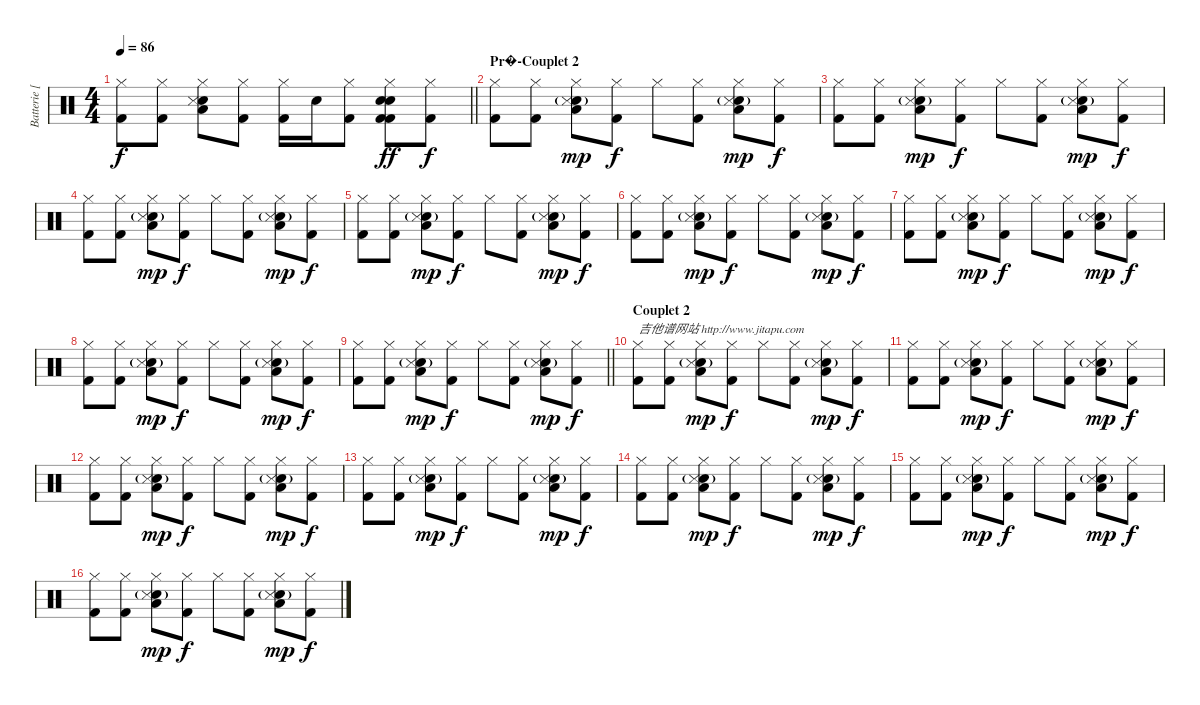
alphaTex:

\track ("Batterie [Dominic Howard]" "Batterie [") {instrument percussion}
\staff {score}
\articulation defaults
\ts (4 4)
\tempo 86
\clef neutral
\barLineRight lightlight
\ks c
("Hi-Hat (closed)" "Kick (hit) 2").8{dy f} ("Hi-Hat (closed)" "Kick (hit) 2").8 ("Hi-Hat (closed)" "Low Tom (hit)" "Electric Snare (hit)" "Snare (side stick) 3").8 ("Hi-Hat (closed)" "Kick (hit) 2").8 ("Hi-Hat (closed)" "Kick (hit) 2").16 "Electric Snare (hit)".16 ("Hi-Hat (closed)" "Kick (hit) 2").8 ("Hi-Hat (closed)" "Electric Snare (hit)" "Kick (hit) 2" "Electric Snare (hit)" "Kick (hit) 2").8{dy ff} ("Hi-Hat (closed)" "Kick (hit) 2").8{dy f} |
\section ("" "Pr�-Couplet 2")
("Hi-Hat (closed)" "Kick (hit) 2").8 ("Hi-Hat (closed)" "Kick (hit) 2").8 ("Hi-Hat (closed)" "Low Tom (hit)" "Electric Snare (hit)"{g} "Snare (side stick) 3").8{dy mp} ("Hi-Hat (closed)" "Kick (hit) 2").8{dy f} "Hi-Hat (closed)".8 ("Hi-Hat (closed)" "Kick (hit) 2").8 ("Hi-Hat (closed)" "Low Tom (hit)" "Electric Snare (hit)"{g} "Snare (side stick) 3").8{dy mp} ("Hi-Hat (closed)" "Kick (hit) 2").8{dy f} |
("Hi-Hat (closed)" "Kick (hit) 2").8 ("Hi-Hat (closed)" "Kick (hit) 2").8 ("Hi-Hat (closed)" "Low Tom (hit)" "Electric Snare (hit)"{g} "Snare (side stick) 3").8{dy mp} ("Hi-Hat (closed)" "Kick (hit) 2").8{dy f} "Hi-Hat (closed)".8 ("Hi-Hat (closed)" "Kick (hit) 2").8 ("Hi-Hat (closed)" "Low Tom (hit)" "Electric Snare (hit)"{g} "Snare (side stick) 3").8{dy mp} ("Hi-Hat (closed)" "Kick (hit) 2").8{dy f} |
("Hi-Hat (closed)" "Kick (hit) 2").8 ("Hi-Hat (closed)" "Kick (hit) 2").8 ("Hi-Hat (closed)" "Low Tom (hit)" "Electric Snare (hit)"{g} "Snare (side stick) 3").8{dy mp} ("Hi-Hat (closed)" "Kick (hit) 2").8{dy f} "Hi-Hat (closed)".8 ("Hi-Hat (closed)" "Kick (hit) 2").8 ("Hi-Hat (closed)" "Low Tom (hit)" "Electric Snare (hit)"{g} "Snare (side stick) 3").8{dy mp} ("Hi-Hat (closed)" "Kick (hit) 2").8{dy f} |
("Hi-Hat (closed)" "Kick (hit) 2").8 ("Hi-Hat (closed)" "Kick (hit) 2").8 ("Hi-Hat (closed)" "Low Tom (hit)" "Electric Snare (hit)"{g} "Snare (side stick) 3").8{dy mp} ("Hi-Hat (closed)" "Kick (hit) 2").8{dy f} "Hi-Hat (closed)".8 ("Hi-Hat (closed)" "Kick (hit) 2").8 ("Hi-Hat (closed)" "Low Tom (hit)" "Electric Snare (hit)"{g} "Snare (side stick) 3").8{dy mp} ("Hi-Hat (closed)" "Kick (hit) 2").8{dy f} |
("Hi-Hat (closed)" "Kick (hit) 2").8 ("Hi-Hat (closed)" "Kick (hit) 2").8 ("Hi-Hat (closed)" "Low Tom (hit)" "Electric Snare (hit)"{g} "Snare (side stick) 3").8{dy mp} ("Hi-Hat (closed)" "Kick (hit) 2").8{dy f} "Hi-Hat (closed)".8 ("Hi-Hat (closed)" "Kick (hit) 2").8 ("Hi-Hat (closed)" "Low Tom (hit)" "Electric Snare (hit)"{g} "Snare (side stick) 3").8{dy mp} ("Hi-Hat (closed)" "Kick (hit) 2").8{dy f} |
("Hi-Hat (closed)" "Kick (hit) 2").8 ("Hi-Hat (closed)" "Kick (hit) 2").8 ("Hi-Hat (closed)" "Low Tom (hit)" "Electric Snare (hit)"{g} "Snare (side stick) 3").8{dy mp} ("Hi-Hat (closed)" "Kick (hit) 2").8{dy f} "Hi-Hat (closed)".8 ("Hi-Hat (closed)" "Kick (hit) 2").8 ("Hi-Hat (closed)" "Low Tom (hit)" "Electric Snare (hit)"{g} "Snare (side stick) 3").8{dy mp} ("Hi-Hat (closed)" "Kick (hit) 2").8{dy f} |
("Hi-Hat (closed)" "Kick (hit) 2").8 ("Hi-Hat (closed)" "Kick (hit) 2").8 ("Hi-Hat (closed)" "Low Tom (hit)" "Electric Snare (hit)"{g} "Snare (side stick) 3").8{dy mp} ("Hi-Hat (closed)" "Kick (hit) 2").8{dy f} "Hi-Hat (closed)".8 ("Hi-Hat (closed)" "Kick (hit) 2").8 ("Hi-Hat (closed)" "Low Tom (hit)" "Electric Snare (hit)"{g} "Snare (side stick) 3").8{dy mp} ("Hi-Hat (closed)" "Kick (hit) 2").8{dy f} |
\barLineRight lightlight
("Hi-Hat (closed)" "Kick (hit) 2").8 ("Hi-Hat (closed)" "Kick (hit) 2").8 ("Hi-Hat (closed)" "Low Tom (hit)" "Electric Snare (hit)"{g} "Snare (side stick) 3").8{dy mp} ("Hi-Hat (closed)" "Kick (hit) 2").8{dy f} "Hi-Hat (closed)".8 ("Hi-Hat (closed)" "Kick (hit) 2").8 ("Hi-Hat (closed)" "Low Tom (hit)" "Electric Snare (hit)"{g} "Snare (side stick) 3").8{dy mp} ("Hi-Hat (closed)" "Kick (hit) 2").8{dy f} |
\section ("" "Couplet 2")
("Hi-Hat (closed)" "Kick (hit) 2").8{txt "吉他谱网站 http://www.jitapu.com"} ("Hi-Hat (closed)" "Kick (hit) 2").8 ("Hi-Hat (closed)" "Low Tom (hit)" "Electric Snare (hit)"{g} "Snare (side stick) 3").8{dy mp} ("Hi-Hat (closed)" "Kick (hit) 2").8{dy f} "Hi-Hat (closed)".8 ("Hi-Hat (closed)" "Kick (hit) 2").8 ("Hi-Hat (closed)" "Low Tom (hit)" "Electric Snare (hit)"{g} "Snare (side stick) 3").8{dy mp} ("Hi-Hat (closed)" "Kick (hit) 2").8{dy f} |
("Hi-Hat (closed)" "Kick (hit) 2").8 ("Hi-Hat (closed)" "Kick (hit) 2").8 ("Hi-Hat (closed)" "Low Tom (hit)" "Electric Snare (hit)"{g} "Snare (side stick) 3").8{dy mp} ("Hi-Hat (closed)" "Kick (hit) 2").8{dy f} "Hi-Hat (closed)".8 ("Hi-Hat (closed)" "Kick (hit) 2").8 ("Hi-Hat (closed)" "Low Tom (hit)" "Electric Snare (hit)"{g} "Snare (side stick) 3").8{dy mp} ("Hi-Hat (closed)" "Kick (hit) 2").8{dy f} |
("Hi-Hat (closed)" "Kick (hit) 2").8 ("Hi-Hat (closed)" "Kick (hit) 2").8 ("Hi-Hat (closed)" "Low Tom (hit)" "Electric Snare (hit)"{g} "Snare (side stick) 3").8{dy mp} ("Hi-Hat (closed)" "Kick (hit) 2").8{dy f} "Hi-Hat (closed)".8 ("Hi-Hat (closed)" "Kick (hit) 2").8 ("Hi-Hat (closed)" "Low Tom (hit)" "Electric Snare (hit)"{g} "Snare (side stick) 3").8{dy mp} ("Hi-Hat (closed)" "Kick (hit) 2").8{dy f} |
("Hi-Hat (closed)" "Kick (hit) 2").8 ("Hi-Hat (closed)" "Kick (hit) 2").8 ("Hi-Hat (closed)" "Low Tom (hit)" "Electric Snare (hit)"{g} "Snare (side stick) 3").8{dy mp} ("Hi-Hat (closed)" "Kick (hit) 2").8{dy f} "Hi-Hat (closed)".8 ("Hi-Hat (closed)" "Kick (hit) 2").8 ("Hi-Hat (closed)" "Low Tom (hit)" "Electric Snare (hit)"{g} "Snare (side stick) 3").8{dy mp} ("Hi-Hat (closed)" "Kick (hit) 2").8{dy f} |
("Hi-Hat (closed)" "Kick (hit) 2").8 ("Hi-Hat (closed)" "Kick (hit) 2").8 ("Hi-Hat (closed)" "Low Tom (hit)" "Electric Snare (hit)"{g} "Snare (side stick) 3").8{dy mp} ("Hi-Hat (closed)" "Kick (hit) 2").8{dy f} "Hi-Hat (closed)".8 ("Hi-Hat (closed)" "Kick (hit) 2").8 ("Hi-Hat (closed)" "Low Tom (hit)" "Electric Snare (hit)"{g} "Snare (side stick) 3").8{dy mp} ("Hi-Hat (closed)" "Kick (hit) 2").8{dy f} |
("Hi-Hat (closed)" "Kick (hit) 2").8 ("Hi-Hat (closed)" "Kick (hit) 2").8 ("Hi-Hat (closed)" "Low Tom (hit)" "Electric Snare (hit)"{g} "Snare (side stick) 3").8{dy mp} ("Hi-Hat (closed)" "Kick (hit) 2").8{dy f} "Hi-Hat (closed)".8 ("Hi-Hat (closed)" "Kick (hit) 2").8 ("Hi-Hat (closed)" "Low Tom (hit)" "Electric Snare (hit)"{g} "Snare (side stick) 3").8{dy mp} ("Hi-Hat (closed)" "Kick (hit) 2").8{dy f} |
("Hi-Hat (closed)" "Kick (hit) 2").8 ("Hi-Hat (closed)" "Kick (hit) 2").8 ("Hi-Hat (closed)" "Low Tom (hit)" "Electric Snare (hit)"{g} "Snare (side stick) 3").8{dy mp} ("Hi-Hat (closed)" "Kick (hit) 2").8{dy f} "Hi-Hat (closed)".8 ("Hi-Hat (closed)" "Kick (hit) 2").8 ("Hi-Hat (closed)" "Low Tom (hit)" "Electric Snare (hit)"{g} "Snare (side stick) 3").8{dy mp} ("Hi-Hat (closed)" "Kick (hit) 2").8{dy f}
